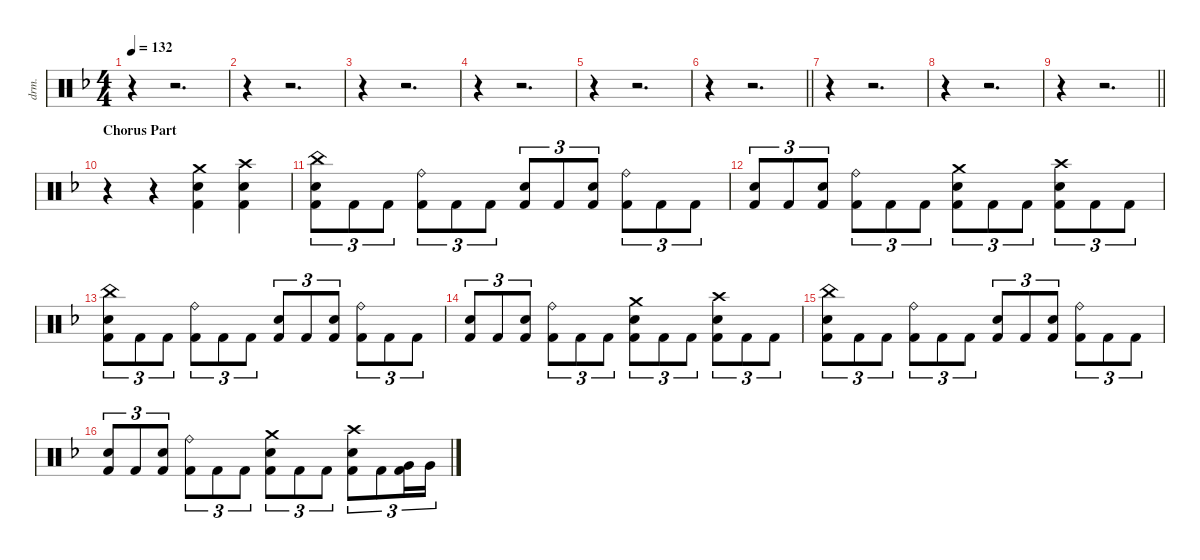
\defaultSystemsLayout 4
\hideDynamics
\bracketExtendMode nobrackets
\otherSystemsTrackNameOrientation horizontal
\track ("Drums" "drm.") {instrument percussion}
\staff {score}
\articulation defaults
\ts (4 4)
\tempo 132
\clef neutral
\ks dminor
r.4{dy f} r.2{d} |
r.4 r.2{d} |
r.4 r.2{d} |
r.4 r.2{d} |
r.4 r.2{d} |
\barLineRight lightlight
r.4 r.2{d} |
r.4 r.2{d} |
r.4 r.2{d} |
\barLineRight lightlight
r.4 r.2{d} |
\section ("" "Chorus Part")
r.4 r.4 ("Crash medium (hit)"{acc forcenatural} "Snare (hit) 2"{acc forcenatural} "Kick (hit) 2"{acc forcenatural}).4 ("Crash high (hit)"{acc forcenatural} "Snare (hit) 2"{acc forcenatural} "Kick (hit) 2"{acc forcenatural}).4 |
("China (hit)"{acc forcenatural} "Snare (hit) 2"{acc forcenatural} "Kick (hit) 2"{acc forcenatural}).8{tu (3 2)} "Kick (hit) 2"{acc forcenatural}.8{tu (3 2)} "Kick (hit) 2"{acc forcenatural}.8{tu (3 2)} ("Ride (bell)"{acc forcenatural} "Kick (hit) 2"{acc forcenatural}).8{tu (3 2)} "Kick (hit) 2"{acc forcenatural}.8{tu (3 2)} "Kick (hit) 2"{acc forcenatural}.8{tu (3 2)} ("Snare (hit) 2"{acc forcenatural} "Kick (hit) 2"{acc forcenatural}).8{tu (3 2)} "Kick (hit) 2"{acc forcenatural}.8{tu (3 2)} ("Snare (hit) 2"{acc forcenatural} "Kick (hit) 2"{acc forcenatural}).8{tu (3 2)} ("Ride (bell)"{acc forcenatural} "Kick (hit) 2"{acc forcenatural}).8{tu (3 2)} "Kick (hit) 2"{acc forcenatural}.8{tu (3 2)} "Kick (hit) 2"{acc forcenatural}.8{tu (3 2)} |
("Snare (hit) 2"{acc forcenatural} "Kick (hit) 2"{acc forcenatural}).8{tu (3 2)} "Kick (hit) 2"{acc forcenatural}.8{tu (3 2)} ("Snare (hit) 2"{acc forcenatural} "Kick (hit) 2"{acc forcenatural}).8{tu (3 2)} ("Ride (bell)"{acc forcenatural} "Kick (hit) 2"{acc forcenatural}).8{tu (3 2)} "Kick (hit) 2"{acc forcenatural}.8{tu (3 2)} "Kick (hit) 2"{acc forcenatural}.8{tu (3 2)} ("Crash medium (hit)"{acc forcenatural} "Snare (hit) 2"{acc forcenatural} "Kick (hit) 2"{acc forcenatural}).8{tu (3 2)} "Kick (hit) 2"{acc forcenatural}.8{tu (3 2)} "Kick (hit) 2"{acc forcenatural}.8{tu (3 2)} ("Crash high (hit)"{acc forcenatural} "Snare (hit) 2"{acc forcenatural} "Kick (hit) 2"{acc forcenatural}).8{tu (3 2)} "Kick (hit) 2"{acc forcenatural}.8{tu (3 2)} "Kick (hit) 2"{acc forcenatural}.8{tu (3 2)} |
("China (hit)"{acc forcenatural} "Snare (hit) 2"{acc forcenatural} "Kick (hit) 2"{acc forcenatural}).8{tu (3 2)} "Kick (hit) 2"{acc forcenatural}.8{tu (3 2)} "Kick (hit) 2"{acc forcenatural}.8{tu (3 2)} ("Ride (bell)"{acc forcenatural} "Kick (hit) 2"{acc forcenatural}).8{tu (3 2)} "Kick (hit) 2"{acc forcenatural}.8{tu (3 2)} "Kick (hit) 2"{acc forcenatural}.8{tu (3 2)} ("Snare (hit) 2"{acc forcenatural} "Kick (hit) 2"{acc forcenatural}).8{tu (3 2)} "Kick (hit) 2"{acc forcenatural}.8{tu (3 2)} ("Snare (hit) 2"{acc forcenatural} "Kick (hit) 2"{acc forcenatural}).8{tu (3 2)} ("Ride (bell)"{acc forcenatural} "Kick (hit) 2"{acc forcenatural}).8{tu (3 2)} "Kick (hit) 2"{acc forcenatural}.8{tu (3 2)} "Kick (hit) 2"{acc forcenatural}.8{tu (3 2)} |
("Snare (hit) 2"{acc forcenatural} "Kick (hit) 2"{acc forcenatural}).8{tu (3 2)} "Kick (hit) 2"{acc forcenatural}.8{tu (3 2)} ("Snare (hit) 2"{acc forcenatural} "Kick (hit) 2"{acc forcenatural}).8{tu (3 2)} ("Ride (bell)"{acc forcenatural} "Kick (hit) 2"{acc forcenatural}).8{tu (3 2)} "Kick (hit) 2"{acc forcenatural}.8{tu (3 2)} "Kick (hit) 2"{acc forcenatural}.8{tu (3 2)} ("Crash medium (hit)"{acc forcenatural} "Snare (hit) 2"{acc forcenatural} "Kick (hit) 2"{acc forcenatural}).8{tu (3 2)} "Kick (hit) 2"{acc forcenatural}.8{tu (3 2)} "Kick (hit) 2"{acc forcenatural}.8{tu (3 2)} ("Crash high (hit)"{acc forcenatural} "Snare (hit) 2"{acc forcenatural} "Kick (hit) 2"{acc forcenatural}).8{tu (3 2)} "Kick (hit) 2"{acc forcenatural}.8{tu (3 2)} "Kick (hit) 2"{acc forcenatural}.8{tu (3 2)} |
("China (hit)"{acc forcenatural} "Snare (hit) 2"{acc forcenatural} "Kick (hit) 2"{acc forcenatural}).8{tu (3 2)} "Kick (hit) 2"{acc forcenatural}.8{tu (3 2)} "Kick (hit) 2"{acc forcenatural}.8{tu (3 2)} ("Ride (bell)"{acc forcenatural} "Kick (hit) 2"{acc forcenatural}).8{tu (3 2)} "Kick (hit) 2"{acc forcenatural}.8{tu (3 2)} "Kick (hit) 2"{acc forcenatural}.8{tu (3 2)} ("Snare (hit) 2"{acc forcenatural} "Kick (hit) 2"{acc forcenatural}).8{tu (3 2)} "Kick (hit) 2"{acc forcenatural}.8{tu (3 2)} ("Snare (hit) 2"{acc forcenatural} "Kick (hit) 2"{acc forcenatural}).8{tu (3 2)} ("Ride (bell)"{acc forcenatural} "Kick (hit) 2"{acc forcenatural}).8{tu (3 2)} "Kick (hit) 2"{acc forcenatural}.8{tu (3 2)} "Kick (hit) 2"{acc forcenatural}.8{tu (3 2)} |
("Snare (hit) 2"{acc forcenatural} "Kick (hit) 2"{acc forcenatural}).8{tu (3 2)} "Kick (hit) 2"{acc forcenatural}.8{tu (3 2)} ("Snare (hit) 2"{acc forcenatural} "Kick (hit) 2"{acc forcenatural}).8{tu (3 2)} ("Ride (bell)"{acc forcenatural} "Kick (hit) 2"{acc forcenatural}).8{tu (3 2)} "Kick (hit) 2"{acc forcenatural}.8{tu (3 2)} "Kick (hit) 2"{acc forcenatural}.8{tu (3 2)} ("Crash medium (hit)"{acc forcenatural} "Snare (hit) 2"{acc forcenatural} "Kick (hit) 2"{acc forcenatural}).8{tu (3 2)} "Kick (hit) 2"{acc forcenatural}.8{tu (3 2)} "Kick (hit) 2"{acc forcenatural}.8{tu (3 2)} ("Crash high (hit)"{acc forcenatural} "Snare (hit) 2"{acc forcenatural} "Kick (hit) 2"{acc forcenatural}).8{tu (3 2)} "Kick (hit) 2"{acc forcenatural}.8{tu (3 2)} ("Very Low Tom (hit)"{acc forcenatural} "Kick (hit) 2"{acc forcenatural}).16{tu (3 2)} "Very Low Tom (hit)"{acc forcenatural}.16{tu (3 2)}
